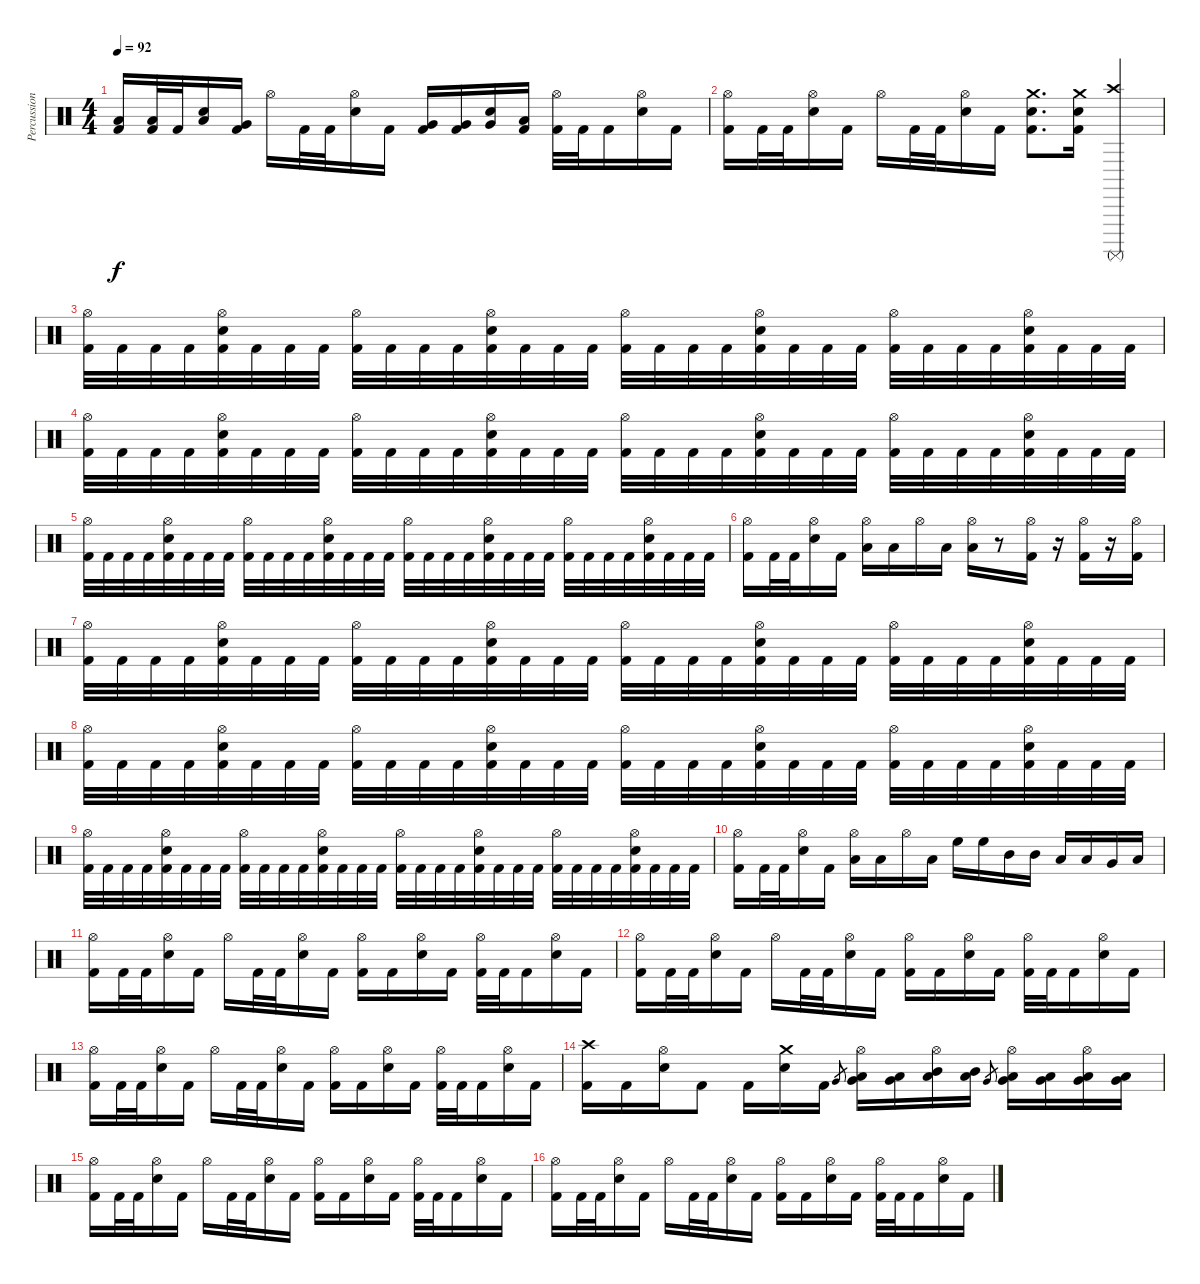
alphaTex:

\track ("Percussion" "Percussion") {instrument percussion}
\staff {score}
\articulation defaults
\ts (4 4)
\tempo 92
\clef neutral
\ks c
("Kick (hit) 2" "Low Tom (hit)").16{dy f} ("Kick (hit) 2" "Low Tom (hit)").32 "Kick (hit) 2".32 ("Electric Snare (hit)" "Low Tom (hit)").16 ("Kick (hit) 2" "Very Low Tom (hit)").16 "Hi-Hat (open)".16 "Kick (hit) 2".32 "Kick (hit) 2".32 ("Electric Snare (hit)" "Hi-Hat (open)").16 "Kick (hit) 2".16 ("Kick (hit) 2" "Very Low Tom (hit)").16 ("Kick (hit) 2" "Very Low Tom (hit)").16 ("Electric Snare (hit)" "Very Low Tom (hit)").16 ("Kick (hit) 2" "Low Floor Tom (hit)").16 ("Kick (hit) 2" "Hi-Hat (open)").32 "Kick (hit) 2".32 "Kick (hit) 2".16 ("Electric Snare (hit)" "Hi-Hat (open)").16 "Kick (hit) 2".16 |
("Kick (hit) 2" "Hi-Hat (open)").16 "Kick (hit) 2".32 "Kick (hit) 2".32 ("Electric Snare (hit)" "Hi-Hat (open)").16 "Kick (hit) 2".16 "Hi-Hat (open)".16 "Kick (hit) 2".32 "Kick (hit) 2".32 ("Electric Snare (hit)" "Hi-Hat (open)").16 "Kick (hit) 2".16 ("Snare (hit) 2" "Crash medium (hit)" "Kick (hit) 2").8{d} ("Snare (hit) 2" "Crash medium (hit)" "Kick (hit) 2").16 ("Surdo (mute)" "Crash high (hit)").4 |
("Kick (hit) 2" "Hi-Hat (open)").32 "Kick (hit) 2".32 "Kick (hit) 2".32 "Kick (hit) 2".32 ("Kick (hit) 2" "Electric Snare (hit)" "Hi-Hat (open)").32 "Kick (hit) 2".32 "Kick (hit) 2".32 "Kick (hit) 2".32 ("Kick (hit) 2" "Hi-Hat (open)").32 "Kick (hit) 2".32 "Kick (hit) 2".32 "Kick (hit) 2".32 ("Kick (hit) 2" "Electric Snare (hit)" "Hi-Hat (open)").32 "Kick (hit) 2".32 "Kick (hit) 2".32 "Kick (hit) 2".32 ("Kick (hit) 2" "Hi-Hat (open)").32 "Kick (hit) 2".32 "Kick (hit) 2".32 "Kick (hit) 2".32 ("Kick (hit) 2" "Electric Snare (hit)" "Hi-Hat (open)").32 "Kick (hit) 2".32 "Kick (hit) 2".32 "Kick (hit) 2".32 ("Kick (hit) 2" "Hi-Hat (open)").32 "Kick (hit) 2".32 "Kick (hit) 2".32 "Kick (hit) 2".32 ("Kick (hit) 2" "Electric Snare (hit)" "Hi-Hat (open)").32 "Kick (hit) 2".32 "Kick (hit) 2".32 "Kick (hit) 2".32 |
("Kick (hit) 2" "Hi-Hat (open)").32 "Kick (hit) 2".32 "Kick (hit) 2".32 "Kick (hit) 2".32 ("Kick (hit) 2" "Electric Snare (hit)" "Hi-Hat (open)").32 "Kick (hit) 2".32 "Kick (hit) 2".32 "Kick (hit) 2".32 ("Kick (hit) 2" "Hi-Hat (open)").32 "Kick (hit) 2".32 "Kick (hit) 2".32 "Kick (hit) 2".32 ("Kick (hit) 2" "Electric Snare (hit)" "Hi-Hat (open)").32 "Kick (hit) 2".32 "Kick (hit) 2".32 "Kick (hit) 2".32 ("Kick (hit) 2" "Hi-Hat (open)").32 "Kick (hit) 2".32 "Kick (hit) 2".32 "Kick (hit) 2".32 ("Kick (hit) 2" "Electric Snare (hit)" "Hi-Hat (open)").32 "Kick (hit) 2".32 "Kick (hit) 2".32 "Kick (hit) 2".32 ("Kick (hit) 2" "Hi-Hat (open)").32 "Kick (hit) 2".32 "Kick (hit) 2".32 "Kick (hit) 2".32 ("Kick (hit) 2" "Electric Snare (hit)" "Hi-Hat (open)").32 "Kick (hit) 2".32 "Kick (hit) 2".32 "Kick (hit) 2".32 |
("Kick (hit) 2" "Hi-Hat (open)").32 "Kick (hit) 2".32 "Kick (hit) 2".32 "Kick (hit) 2".32 ("Kick (hit) 2" "Electric Snare (hit)" "Hi-Hat (open)").32 "Kick (hit) 2".32 "Kick (hit) 2".32 "Kick (hit) 2".32 ("Kick (hit) 2" "Hi-Hat (open)").32 "Kick (hit) 2".32 "Kick (hit) 2".32 "Kick (hit) 2".32 ("Kick (hit) 2" "Electric Snare (hit)" "Hi-Hat (open)").32 "Kick (hit) 2".32 "Kick (hit) 2".32 "Kick (hit) 2".32 ("Kick (hit) 2" "Hi-Hat (open)").32 "Kick (hit) 2".32 "Kick (hit) 2".32 "Kick (hit) 2".32 ("Kick (hit) 2" "Electric Snare (hit)" "Hi-Hat (open)").32 "Kick (hit) 2".32 "Kick (hit) 2".32 "Kick (hit) 2".32 ("Kick (hit) 2" "Hi-Hat (open)").32 "Kick (hit) 2".32 "Kick (hit) 2".32 "Kick (hit) 2".32 ("Kick (hit) 2" "Electric Snare (hit)" "Hi-Hat (open)").32 "Kick (hit) 2".32 "Kick (hit) 2".32 "Kick (hit) 2".32 |
("Kick (hit) 2" "Hi-Hat (open)").16 "Kick (hit) 2".32 "Kick (hit) 2".32 ("Electric Snare (hit)" "Hi-Hat (open)").16 "Kick (hit) 2".16 ("Low Tom (hit)" "Hi-Hat (open)").16 "Low Tom (hit)".16 "Hi-Hat (open)".16 "Low Floor Tom (hit)".16 ("Low Floor Tom (hit)" "Hi-Hat (open)").16 r.8 ("Hi-Hat (open)" "Kick (hit) 2").16 r.16 ("Hi-Hat (open)" "Kick (hit) 2").16 r.16 ("Hi-Hat (open)" "Kick (hit) 2").16 |
("Kick (hit) 2" "Hi-Hat (open)").32 "Kick (hit) 2".32 "Kick (hit) 2".32 "Kick (hit) 2".32 ("Kick (hit) 2" "Electric Snare (hit)" "Hi-Hat (open)").32 "Kick (hit) 2".32 "Kick (hit) 2".32 "Kick (hit) 2".32 ("Kick (hit) 2" "Hi-Hat (open)").32 "Kick (hit) 2".32 "Kick (hit) 2".32 "Kick (hit) 2".32 ("Kick (hit) 2" "Electric Snare (hit)" "Hi-Hat (open)").32 "Kick (hit) 2".32 "Kick (hit) 2".32 "Kick (hit) 2".32 ("Kick (hit) 2" "Hi-Hat (open)").32 "Kick (hit) 2".32 "Kick (hit) 2".32 "Kick (hit) 2".32 ("Kick (hit) 2" "Electric Snare (hit)" "Hi-Hat (open)").32 "Kick (hit) 2".32 "Kick (hit) 2".32 "Kick (hit) 2".32 ("Kick (hit) 2" "Hi-Hat (open)").32 "Kick (hit) 2".32 "Kick (hit) 2".32 "Kick (hit) 2".32 ("Kick (hit) 2" "Electric Snare (hit)" "Hi-Hat (open)").32 "Kick (hit) 2".32 "Kick (hit) 2".32 "Kick (hit) 2".32 |
("Kick (hit) 2" "Hi-Hat (open)").32 "Kick (hit) 2".32 "Kick (hit) 2".32 "Kick (hit) 2".32 ("Kick (hit) 2" "Electric Snare (hit)" "Hi-Hat (open)").32 "Kick (hit) 2".32 "Kick (hit) 2".32 "Kick (hit) 2".32 ("Kick (hit) 2" "Hi-Hat (open)").32 "Kick (hit) 2".32 "Kick (hit) 2".32 "Kick (hit) 2".32 ("Kick (hit) 2" "Electric Snare (hit)" "Hi-Hat (open)").32 "Kick (hit) 2".32 "Kick (hit) 2".32 "Kick (hit) 2".32 ("Kick (hit) 2" "Hi-Hat (open)").32 "Kick (hit) 2".32 "Kick (hit) 2".32 "Kick (hit) 2".32 ("Kick (hit) 2" "Electric Snare (hit)" "Hi-Hat (open)").32 "Kick (hit) 2".32 "Kick (hit) 2".32 "Kick (hit) 2".32 ("Kick (hit) 2" "Hi-Hat (open)").32 "Kick (hit) 2".32 "Kick (hit) 2".32 "Kick (hit) 2".32 ("Kick (hit) 2" "Electric Snare (hit)" "Hi-Hat (open)").32 "Kick (hit) 2".32 "Kick (hit) 2".32 "Kick (hit) 2".32 |
("Kick (hit) 2" "Hi-Hat (open)").32 "Kick (hit) 2".32 "Kick (hit) 2".32 "Kick (hit) 2".32 ("Kick (hit) 2" "Electric Snare (hit)" "Hi-Hat (open)").32 "Kick (hit) 2".32 "Kick (hit) 2".32 "Kick (hit) 2".32 ("Kick (hit) 2" "Hi-Hat (open)").32 "Kick (hit) 2".32 "Kick (hit) 2".32 "Kick (hit) 2".32 ("Kick (hit) 2" "Electric Snare (hit)" "Hi-Hat (open)").32 "Kick (hit) 2".32 "Kick (hit) 2".32 "Kick (hit) 2".32 ("Kick (hit) 2" "Hi-Hat (open)").32 "Kick (hit) 2".32 "Kick (hit) 2".32 "Kick (hit) 2".32 ("Kick (hit) 2" "Electric Snare (hit)" "Hi-Hat (open)").32 "Kick (hit) 2".32 "Kick (hit) 2".32 "Kick (hit) 2".32 ("Kick (hit) 2" "Hi-Hat (open)").32 "Kick (hit) 2".32 "Kick (hit) 2".32 "Kick (hit) 2".32 ("Kick (hit) 2" "Electric Snare (hit)" "Hi-Hat (open)").32 "Kick (hit) 2".32 "Kick (hit) 2".32 "Kick (hit) 2".32 |
("Kick (hit) 2" "Hi-Hat (open)").16 "Kick (hit) 2".32 "Kick (hit) 2".32 ("Electric Snare (hit)" "Hi-Hat (open)").16 "Kick (hit) 2".16 ("Low Tom (hit)" "Hi-Hat (open)").16 "Low Tom (hit)".16 "Hi-Hat (open)".16 "Low Floor Tom (hit)".16 "High Floor Tom (hit)".16 "High Floor Tom (hit)".16 "Mid Tom (hit)".16 "Mid Tom (hit)".16 "Low Tom (hit)".16 "Low Tom (hit)".16 "Very Low Tom (hit)".16 "Low Floor Tom (hit)".16 |
("Kick (hit) 2" "Hi-Hat (open)").16 "Kick (hit) 2".32 "Kick (hit) 2".32 ("Electric Snare (hit)" "Hi-Hat (open)").16 "Kick (hit) 2".16 "Hi-Hat (open)".16 "Kick (hit) 2".32 "Kick (hit) 2".32 ("Electric Snare (hit)" "Hi-Hat (open)").16 "Kick (hit) 2".16 ("Kick (hit) 2" "Hi-Hat (open)").16 "Kick (hit) 2".16 ("Electric Snare (hit)" "Hi-Hat (open)").16 "Kick (hit) 2".16 ("Kick (hit) 2" "Hi-Hat (open)").32 "Kick (hit) 2".32 "Kick (hit) 2".16 ("Electric Snare (hit)" "Hi-Hat (open)").16 "Kick (hit) 2".16 |
("Kick (hit) 2" "Hi-Hat (open)").16 "Kick (hit) 2".32 "Kick (hit) 2".32 ("Electric Snare (hit)" "Hi-Hat (open)").16 "Kick (hit) 2".16 "Hi-Hat (open)".16 "Kick (hit) 2".32 "Kick (hit) 2".32 ("Electric Snare (hit)" "Hi-Hat (open)").16 "Kick (hit) 2".16 ("Kick (hit) 2" "Hi-Hat (open)").16 "Kick (hit) 2".16 ("Electric Snare (hit)" "Hi-Hat (open)").16 "Kick (hit) 2".16 ("Kick (hit) 2" "Hi-Hat (open)").32 "Kick (hit) 2".32 "Kick (hit) 2".16 ("Electric Snare (hit)" "Hi-Hat (open)").16 "Kick (hit) 2".16 |
("Kick (hit) 2" "Hi-Hat (open)").16 "Kick (hit) 2".32 "Kick (hit) 2".32 ("Electric Snare (hit)" "Hi-Hat (open)").16 "Kick (hit) 2".16 "Hi-Hat (open)".16 "Kick (hit) 2".32 "Kick (hit) 2".32 ("Electric Snare (hit)" "Hi-Hat (open)").16 "Kick (hit) 2".16 ("Kick (hit) 2" "Hi-Hat (open)").16 "Kick (hit) 2".16 ("Electric Snare (hit)" "Hi-Hat (open)").16 "Kick (hit) 2".16 ("Kick (hit) 2" "Hi-Hat (open)").32 "Kick (hit) 2".32 "Kick (hit) 2".16 ("Electric Snare (hit)" "Hi-Hat (open)").16 "Kick (hit) 2".16 |
("Kick (hit) 2" "Crash high (hit)").16 "Kick (hit) 2".16 ("Electric Snare (hit)" "Hi-Hat (open)").16 "Kick (hit) 2".8 "Kick (hit) 2".16 ("Electric Snare (hit)" "Crash medium (hit)").16 "Kick (hit) 2".16 "Very Low Tom (hit)".8{gr} ("Low Tom (hit)" "Very Low Tom (hit)" "Hi-Hat (open)").16 ("Low Tom (hit)" "Very Low Tom (hit)").16 ("Mid Tom (hit)" "Low Floor Tom (hit)" "Hi-Hat (open)").16 ("Mid Tom (hit)" "Low Floor Tom (hit)").16 "Very Low Tom (hit)".8{gr} ("Low Tom (hit)" "Very Low Tom (hit)" "Hi-Hat (open)").16 ("Low Tom (hit)" "Very Low Tom (hit)").16 ("Low Floor Tom (hit)" "Very Low Tom (hit)" "Hi-Hat (open)").16 ("Low Floor Tom (hit)" "Very Low Tom (hit)").16 |
("Kick (hit) 2" "Hi-Hat (open)").16 "Kick (hit) 2".32 "Kick (hit) 2".32 ("Electric Snare (hit)" "Hi-Hat (open)").16 "Kick (hit) 2".16 "Hi-Hat (open)".16 "Kick (hit) 2".32 "Kick (hit) 2".32 ("Electric Snare (hit)" "Hi-Hat (open)").16 "Kick (hit) 2".16 ("Kick (hit) 2" "Hi-Hat (open)").16 "Kick (hit) 2".16 ("Electric Snare (hit)" "Hi-Hat (open)").16 "Kick (hit) 2".16 ("Kick (hit) 2" "Hi-Hat (open)").32 "Kick (hit) 2".32 "Kick (hit) 2".16 ("Electric Snare (hit)" "Hi-Hat (open)").16 "Kick (hit) 2".16 |
("Kick (hit) 2" "Hi-Hat (open)").16 "Kick (hit) 2".32 "Kick (hit) 2".32 ("Electric Snare (hit)" "Hi-Hat (open)").16 "Kick (hit) 2".16 "Hi-Hat (open)".16 "Kick (hit) 2".32 "Kick (hit) 2".32 ("Electric Snare (hit)" "Hi-Hat (open)").16 "Kick (hit) 2".16 ("Kick (hit) 2" "Hi-Hat (open)").16 "Kick (hit) 2".16 ("Electric Snare (hit)" "Hi-Hat (open)").16 "Kick (hit) 2".16 ("Kick (hit) 2" "Hi-Hat (open)").32 "Kick (hit) 2".32 "Kick (hit) 2".16 ("Electric Snare (hit)" "Hi-Hat (open)").16 "Kick (hit) 2".16
